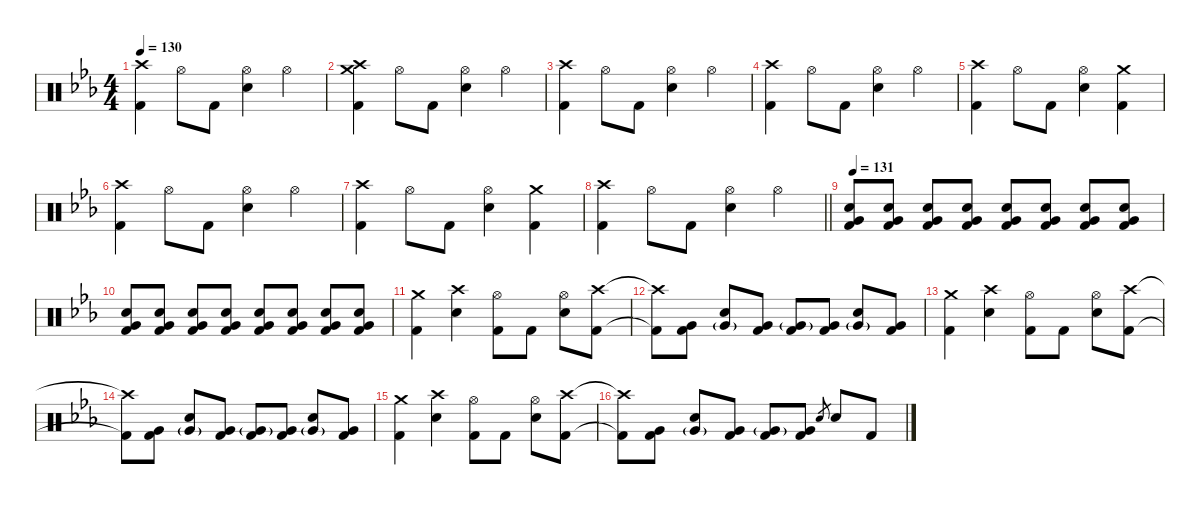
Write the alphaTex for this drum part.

\defaultSystemsLayout 4
\hideDynamics
\bracketExtendMode nobrackets
\singleTrackTrackNamePolicy hidden
\multiTrackTrackNamePolicy hidden
\firstSystemTrackNameMode fullname
\otherSystemsTrackNameOrientation horizontal
\track ("Drums" "drm.") {instrument percussion}
\staff {score}
\articulation defaults
\ts (4 4)
\tempo 130
\clef neutral
\ks cminor
("Crash high (hit)"{acc forcenatural} "Kick (hit) 2"{acc forcenatural}).4{dy mp beam Down} "Hi-Hat (open)"{acc forcenatural}.8{beam Down} "Kick (hit) 2"{acc forcenatural}.8{dy f beam Down} ("Hi-Hat (open)"{acc forcenatural} "Snare (hit) 2"{acc forcenatural}).4{dy mp beam Down} "Hi-Hat (open)"{acc forcenatural}.4{beam Down} |
("Crash medium (hit)"{acc forcenatural} "Crash high (hit)"{acc forcenatural} "Kick (hit) 2"{acc forcenatural}).4{dy f beam Down} "Hi-Hat (open)"{acc forcenatural}.8{dy mp beam Down} "Kick (hit) 2"{acc forcenatural}.8{dy f beam Down} ("Hi-Hat (open)"{acc forcenatural} "Snare (hit) 2"{acc forcenatural}).4{dy mp beam Down} "Hi-Hat (open)"{acc forcenatural}.4{beam Down} |
("Crash high (hit)"{acc forcenatural} "Kick (hit) 2"{acc forcenatural}).4{beam Down} "Hi-Hat (open)"{acc forcenatural}.8{beam Down} "Kick (hit) 2"{acc forcenatural}.8{dy f beam Down} ("Hi-Hat (open)"{acc forcenatural} "Snare (hit) 2"{acc forcenatural}).4{dy mp beam Down} "Hi-Hat (open)"{acc forcenatural}.4{beam Down} |
("Crash high (hit)"{acc forcenatural} "Kick (hit) 2"{acc forcenatural}).4{beam Down} "Hi-Hat (open)"{acc forcenatural}.8{beam Down} "Kick (hit) 2"{acc forcenatural}.8{dy f beam Down} ("Hi-Hat (open)"{acc forcenatural} "Snare (hit) 2"{acc forcenatural}).4{dy mp beam Down} "Hi-Hat (open)"{acc forcenatural}.4{beam Down} |
("Crash high (hit)"{acc forcenatural} "Kick (hit) 2"{acc forcenatural}).4{beam Down} "Hi-Hat (open)"{acc forcenatural}.8{beam Down} "Kick (hit) 2"{acc forcenatural}.8{dy f beam Down} ("Hi-Hat (open)"{acc forcenatural} "Snare (hit) 2"{acc forcenatural}).4{dy mp beam Down} ("Crash medium (hit)"{acc forcenatural} "Kick (hit) 2"{acc forcenatural}).4{beam Down} |
("Crash high (hit)"{acc forcenatural} "Kick (hit) 2"{acc forcenatural}).4{beam Down} "Hi-Hat (open)"{acc forcenatural}.8{beam Down} "Kick (hit) 2"{acc forcenatural}.8{dy f beam Down} ("Hi-Hat (open)"{acc forcenatural} "Snare (hit) 2"{acc forcenatural}).4{dy mp beam Down} "Hi-Hat (open)"{acc forcenatural}.4{beam Down} |
("Crash high (hit)"{acc forcenatural} "Kick (hit) 2"{acc forcenatural}).4{beam Down} "Hi-Hat (open)"{acc forcenatural}.8{beam Down} "Kick (hit) 2"{acc forcenatural}.8{dy f beam Down} ("Hi-Hat (open)"{acc forcenatural} "Snare (hit) 2"{acc forcenatural}).4{dy mp beam Down} ("Crash medium (hit)"{acc forcenatural} "Kick (hit) 2"{acc forcenatural}).4{beam Down} |
\barLineRight lightlight
("Crash high (hit)"{acc forcenatural} "Kick (hit) 2"{acc forcenatural}).4{beam Down} "Hi-Hat (open)"{acc forcenatural}.8{beam Down} "Kick (hit) 2"{acc forcenatural}.8{dy f beam Down} ("Hi-Hat (open)"{acc forcenatural} "Snare (hit) 2"{acc forcenatural}).4{dy mp beam Down} "Hi-Hat (open)"{acc forcenatural}.4{beam Down} |
\tempo 131
("Snare (hit) 2"{acc forcenatural} "Very Low Tom (hit)"{acc forcenatural} "Kick (hit) 2"{acc forcenatural}).8{dy ppp beam Up} ("Snare (hit) 2"{acc forcenatural} "Very Low Tom (hit)"{acc forcenatural} "Kick (hit) 2"{acc forcenatural}).8{beam Up} ("Snare (hit) 2"{acc forcenatural} "Very Low Tom (hit)"{acc forcenatural} "Kick (hit) 2"{acc forcenatural}).8{dy pp beam Up} ("Snare (hit) 2"{acc forcenatural} "Very Low Tom (hit)"{acc forcenatural} "Kick (hit) 2"{acc forcenatural}).8{beam Up} ("Snare (hit) 2"{acc forcenatural} "Very Low Tom (hit)"{acc forcenatural} "Kick (hit) 2"{acc forcenatural}).8{dy p beam Up} ("Snare (hit) 2"{acc forcenatural} "Very Low Tom (hit)"{acc forcenatural} "Kick (hit) 2"{acc forcenatural}).8{beam Up} ("Snare (hit) 2"{acc forcenatural} "Very Low Tom (hit)"{acc forcenatural} "Kick (hit) 2"{acc forcenatural}).8{dy mp beam Up} ("Snare (hit) 2"{acc forcenatural} "Very Low Tom (hit)"{acc forcenatural} "Kick (hit) 2"{acc forcenatural}).8{beam Up} |
("Snare (hit) 2"{acc forcenatural} "Very Low Tom (hit)"{acc forcenatural} "Kick (hit) 2"{acc forcenatural}).8{dy mf beam Up} ("Snare (hit) 2"{acc forcenatural} "Very Low Tom (hit)"{acc forcenatural} "Kick (hit) 2"{acc forcenatural}).8{beam Up} ("Snare (hit) 2"{acc forcenatural} "Very Low Tom (hit)"{acc forcenatural} "Kick (hit) 2"{acc forcenatural}).8{dy f beam Up} ("Snare (hit) 2"{acc forcenatural} "Very Low Tom (hit)"{acc forcenatural} "Kick (hit) 2"{acc forcenatural}).8{beam Up} ("Snare (hit) 2"{acc forcenatural} "Very Low Tom (hit)"{acc forcenatural} "Kick (hit) 2"{acc forcenatural}).8{dy ff beam Up} ("Snare (hit) 2"{acc forcenatural} "Very Low Tom (hit)"{acc forcenatural} "Kick (hit) 2"{acc forcenatural}).8{beam Up} ("Snare (hit) 2"{acc forcenatural} "Very Low Tom (hit)"{acc forcenatural} "Kick (hit) 2"{acc forcenatural}).8{dy fff beam Up} ("Snare (hit) 2"{acc forcenatural} "Very Low Tom (hit)"{acc forcenatural} "Kick (hit) 2"{acc forcenatural}).8{beam Up} |
("Crash medium (hit)"{acc forcenatural} "Kick (hit) 2"{acc forcenatural}).4{dy f beam Down} ("Crash high (hit)"{acc forcenatural} "Snare (hit) 2"{acc forcenatural}).4{beam Down} ("Hi-Hat (open)"{acc forcenatural} "Kick (hit) 2"{acc forcenatural}).8{dy mp beam Down} "Kick (hit) 2"{acc forcenatural}.8{dy f beam Down} ("Hi-Hat (open)"{acc forcenatural} "Snare (hit) 2"{acc forcenatural}).8{dy mp beam Down} ("Crash high (hit)"{acc forcenatural} "Kick (hit) 2"{acc forcenatural}).8{dy f beam Down} |
("Crash high (hit)"{t acc forcenatural} "Kick (hit) 2"{t acc forcenatural}).8{beam Down} ("Very Low Tom (hit)"{acc forcenatural} "Kick (hit) 2"{acc forcenatural}).8{beam Down} ("Snare (hit) 2"{acc forcenatural} "Very Low Tom (hit)"{g acc forcenatural}).8{beam Up} ("Very Low Tom (hit)"{acc forcenatural} "Kick (hit) 2"{acc forcenatural}).8{beam Up} ("Very Low Tom (hit)"{g acc forcenatural} "Kick (hit) 2"{acc forcenatural}).8{beam Up} ("Very Low Tom (hit)"{acc forcenatural} "Kick (hit) 2"{acc forcenatural}).8{beam Up} ("Snare (hit) 2"{acc forcenatural} "Very Low Tom (hit)"{g acc forcenatural}).8{beam Up} ("Very Low Tom (hit)"{acc forcenatural} "Kick (hit) 2"{acc forcenatural}).8{beam Up} |
("Crash medium (hit)"{acc forcenatural} "Kick (hit) 2"{acc forcenatural}).4{beam Down} ("Crash high (hit)"{acc forcenatural} "Snare (hit) 2"{acc forcenatural}).4{beam Down} ("Hi-Hat (open)"{acc forcenatural} "Kick (hit) 2"{acc forcenatural}).8{dy mp beam Down} "Kick (hit) 2"{acc forcenatural}.8{dy f beam Down} ("Hi-Hat (open)"{acc forcenatural} "Snare (hit) 2"{acc forcenatural}).8{dy mp beam Down} ("Crash high (hit)"{acc forcenatural} "Kick (hit) 2"{acc forcenatural}).8{dy f beam Down} |
("Crash high (hit)"{t acc forcenatural} "Kick (hit) 2"{t acc forcenatural}).8{beam Down} ("Very Low Tom (hit)"{acc forcenatural} "Kick (hit) 2"{acc forcenatural}).8{beam Down} ("Snare (hit) 2"{acc forcenatural} "Very Low Tom (hit)"{g acc forcenatural}).8{beam Up} ("Very Low Tom (hit)"{acc forcenatural} "Kick (hit) 2"{acc forcenatural}).8{beam Up} ("Very Low Tom (hit)"{g acc forcenatural} "Kick (hit) 2"{acc forcenatural}).8{beam Up} ("Very Low Tom (hit)"{acc forcenatural} "Kick (hit) 2"{acc forcenatural}).8{beam Up} ("Snare (hit) 2"{acc forcenatural} "Very Low Tom (hit)"{g acc forcenatural}).8{beam Up} ("Very Low Tom (hit)"{acc forcenatural} "Kick (hit) 2"{acc forcenatural}).8{beam Up} |
("Crash medium (hit)"{acc forcenatural} "Kick (hit) 2"{acc forcenatural}).4{beam Down} ("Crash high (hit)"{acc forcenatural} "Snare (hit) 2"{acc forcenatural}).4{beam Down} ("Hi-Hat (open)"{acc forcenatural} "Kick (hit) 2"{acc forcenatural}).8{dy mp beam Down} "Kick (hit) 2"{acc forcenatural}.8{dy f beam Down} ("Hi-Hat (open)"{acc forcenatural} "Snare (hit) 2"{acc forcenatural}).8{dy mp beam Down} ("Crash high (hit)"{acc forcenatural} "Kick (hit) 2"{acc forcenatural}).8{dy f beam Down} |
("Crash high (hit)"{t acc forcenatural} "Kick (hit) 2"{t acc forcenatural}).8{beam Down} ("Very Low Tom (hit)"{acc forcenatural} "Kick (hit) 2"{acc forcenatural}).8{beam Down} ("Snare (hit) 2"{acc forcenatural} "Very Low Tom (hit)"{g acc forcenatural}).8{beam Up} ("Very Low Tom (hit)"{acc forcenatural} "Kick (hit) 2"{acc forcenatural}).8{beam Up} ("Very Low Tom (hit)"{g acc forcenatural} "Kick (hit) 2"{acc forcenatural}).8{beam Up} ("Very Low Tom (hit)"{acc forcenatural} "Kick (hit) 2"{acc forcenatural}).8{beam Up} "Electric Snare (hit)"{acc forcenatural}.8{gr dy mf beam Up} "Snare (hit) 2"{acc forcenatural}.8{dy f beam Up} "Kick (hit) 2"{acc forcenatural}.8{beam Up}
